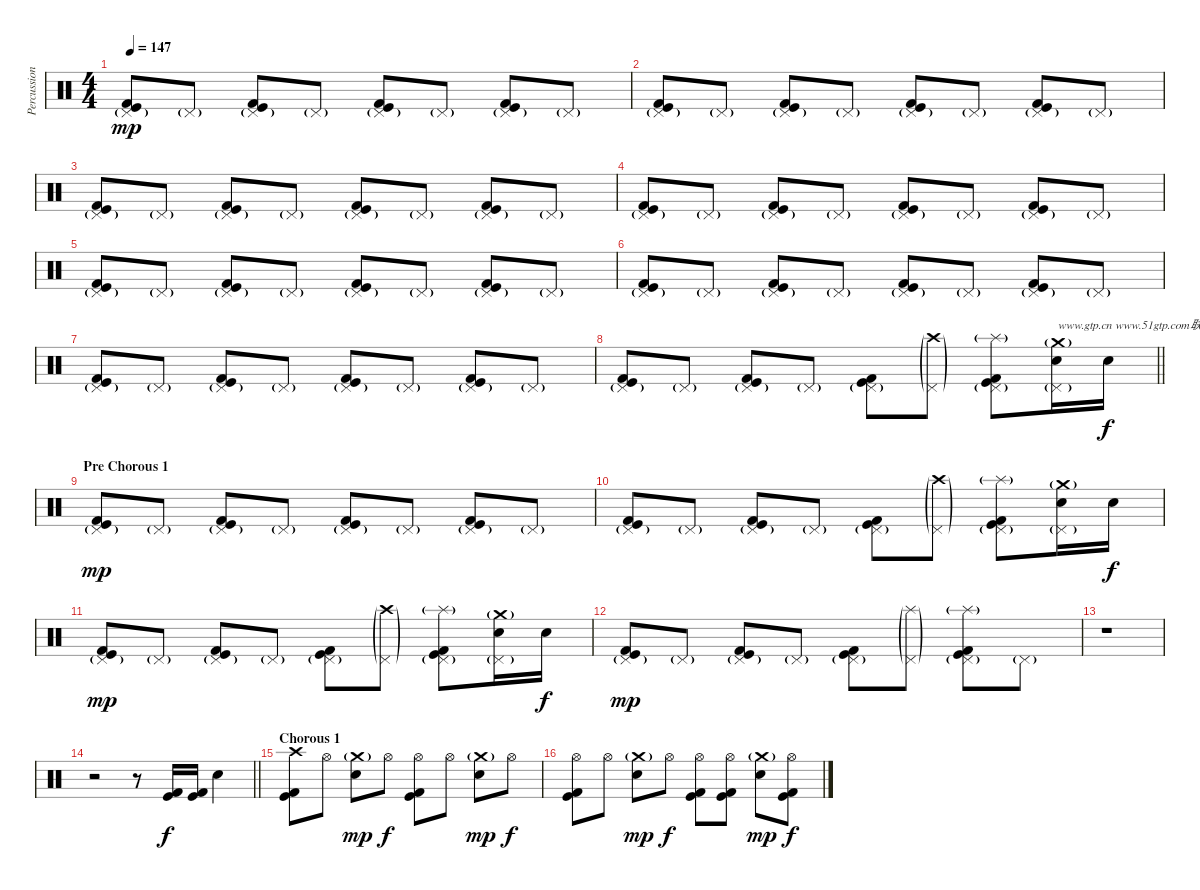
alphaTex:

\track ("Percussion" "Percussion") {instrument percussion}
\staff {score}
\articulation defaults
\ts (4 4)
\section ("" "")
\tempo 147
\clef neutral
\ks c
("Pedal Hi-Hat (hit)"{g} "Kick (hit)" "Kick (hit) 2").8{dy mp} "Pedal Hi-Hat (hit)"{g}.8 ("Pedal Hi-Hat (hit)"{g} "Kick (hit)" "Kick (hit) 2").8 "Pedal Hi-Hat (hit)"{g}.8 ("Pedal Hi-Hat (hit)"{g} "Kick (hit)" "Kick (hit) 2").8 "Pedal Hi-Hat (hit)"{g}.8 ("Pedal Hi-Hat (hit)"{g} "Kick (hit)" "Kick (hit) 2").8 "Pedal Hi-Hat (hit)"{g}.8 |
("Pedal Hi-Hat (hit)"{g} "Kick (hit)" "Kick (hit) 2").8 "Pedal Hi-Hat (hit)"{g}.8 ("Pedal Hi-Hat (hit)"{g} "Kick (hit)" "Kick (hit) 2").8 "Pedal Hi-Hat (hit)"{g}.8 ("Pedal Hi-Hat (hit)"{g} "Kick (hit)" "Kick (hit) 2").8 "Pedal Hi-Hat (hit)"{g}.8 ("Pedal Hi-Hat (hit)"{g} "Kick (hit)" "Kick (hit) 2").8 "Pedal Hi-Hat (hit)"{g}.8 |
("Pedal Hi-Hat (hit)"{g} "Kick (hit)" "Kick (hit) 2").8 "Pedal Hi-Hat (hit)"{g}.8 ("Pedal Hi-Hat (hit)"{g} "Kick (hit)" "Kick (hit) 2").8 "Pedal Hi-Hat (hit)"{g}.8 ("Pedal Hi-Hat (hit)"{g} "Kick (hit)" "Kick (hit) 2").8 "Pedal Hi-Hat (hit)"{g}.8 ("Pedal Hi-Hat (hit)"{g} "Kick (hit)" "Kick (hit) 2").8 "Pedal Hi-Hat (hit)"{g}.8 |
("Pedal Hi-Hat (hit)"{g} "Kick (hit)" "Kick (hit) 2").8 "Pedal Hi-Hat (hit)"{g}.8 ("Pedal Hi-Hat (hit)"{g} "Kick (hit)" "Kick (hit) 2").8 "Pedal Hi-Hat (hit)"{g}.8 ("Pedal Hi-Hat (hit)"{g} "Kick (hit)" "Kick (hit) 2").8 "Pedal Hi-Hat (hit)"{g}.8 ("Pedal Hi-Hat (hit)"{g} "Kick (hit)" "Kick (hit) 2").8 "Pedal Hi-Hat (hit)"{g}.8 |
("Pedal Hi-Hat (hit)"{g} "Kick (hit)" "Kick (hit) 2").8 "Pedal Hi-Hat (hit)"{g}.8 ("Pedal Hi-Hat (hit)"{g} "Kick (hit)" "Kick (hit) 2").8 "Pedal Hi-Hat (hit)"{g}.8 ("Pedal Hi-Hat (hit)"{g} "Kick (hit)" "Kick (hit) 2").8 "Pedal Hi-Hat (hit)"{g}.8 ("Pedal Hi-Hat (hit)"{g} "Kick (hit)" "Kick (hit) 2").8 "Pedal Hi-Hat (hit)"{g}.8 |
("Pedal Hi-Hat (hit)"{g} "Kick (hit)" "Kick (hit) 2").8 "Pedal Hi-Hat (hit)"{g}.8 ("Pedal Hi-Hat (hit)"{g} "Kick (hit)" "Kick (hit) 2").8 "Pedal Hi-Hat (hit)"{g}.8 ("Pedal Hi-Hat (hit)"{g} "Kick (hit)" "Kick (hit) 2").8 "Pedal Hi-Hat (hit)"{g}.8 ("Pedal Hi-Hat (hit)"{g} "Kick (hit)" "Kick (hit) 2").8 "Pedal Hi-Hat (hit)"{g}.8 |
("Pedal Hi-Hat (hit)"{g} "Kick (hit)" "Kick (hit) 2").8 "Pedal Hi-Hat (hit)"{g}.8 ("Pedal Hi-Hat (hit)"{g} "Kick (hit)" "Kick (hit) 2").8 "Pedal Hi-Hat (hit)"{g}.8 ("Pedal Hi-Hat (hit)"{g} "Kick (hit)" "Kick (hit) 2").8 "Pedal Hi-Hat (hit)"{g}.8 ("Pedal Hi-Hat (hit)"{g} "Kick (hit)" "Kick (hit) 2").8 "Pedal Hi-Hat (hit)"{g}.8 |
\barLineRight lightlight
("Pedal Hi-Hat (hit)"{g} "Kick (hit)" "Kick (hit) 2").8 "Pedal Hi-Hat (hit)"{g}.8 ("Pedal Hi-Hat (hit)"{g} "Kick (hit)" "Kick (hit) 2").8 "Pedal Hi-Hat (hit)"{g}.8 ("Pedal Hi-Hat (hit)"{g} "Kick (hit)" "Kick (hit) 2").8 ("Pedal Hi-Hat (hit)"{g} "Crash high (hit)"{g}).8 ("Pedal Hi-Hat (hit)"{g} "Splash (hit)"{g} "Kick (hit)" "Kick (hit) 2").8 ("Pedal Hi-Hat (hit)"{g} "Crash medium (hit)"{g} "Electric Snare (hit)").16{txt "www.gtp.cn www.51gtp.com联合为您提供优秀的GTP!"} "Electric Snare (hit)".16{dy f} |
\section ("" "Pre Chorous 1")
("Pedal Hi-Hat (hit)"{g} "Kick (hit)" "Kick (hit) 2").8{dy mp} "Pedal Hi-Hat (hit)"{g}.8 ("Pedal Hi-Hat (hit)"{g} "Kick (hit)" "Kick (hit) 2").8 "Pedal Hi-Hat (hit)"{g}.8 ("Pedal Hi-Hat (hit)"{g} "Kick (hit)" "Kick (hit) 2").8 "Pedal Hi-Hat (hit)"{g}.8 ("Pedal Hi-Hat (hit)"{g} "Kick (hit)" "Kick (hit) 2").8 "Pedal Hi-Hat (hit)"{g}.8 |
("Pedal Hi-Hat (hit)"{g} "Kick (hit)" "Kick (hit) 2").8 "Pedal Hi-Hat (hit)"{g}.8 ("Pedal Hi-Hat (hit)"{g} "Kick (hit)" "Kick (hit) 2").8 "Pedal Hi-Hat (hit)"{g}.8 ("Pedal Hi-Hat (hit)"{g} "Kick (hit)" "Kick (hit) 2").8 ("Pedal Hi-Hat (hit)"{g} "Crash high (hit)"{g}).8 ("Pedal Hi-Hat (hit)"{g} "Splash (hit)"{g} "Kick (hit)" "Kick (hit) 2").8 ("Pedal Hi-Hat (hit)"{g} "Crash medium (hit)"{g} "Electric Snare (hit)").16 "Electric Snare (hit)".16{dy f} |
("Pedal Hi-Hat (hit)"{g} "Kick (hit)" "Kick (hit) 2").8{dy mp} "Pedal Hi-Hat (hit)"{g}.8 ("Pedal Hi-Hat (hit)"{g} "Kick (hit)" "Kick (hit) 2").8 "Pedal Hi-Hat (hit)"{g}.8 ("Pedal Hi-Hat (hit)"{g} "Kick (hit)" "Kick (hit) 2").8 ("Pedal Hi-Hat (hit)"{g} "Crash high (hit)"{g}).8 ("Pedal Hi-Hat (hit)"{g} "Splash (hit)"{g} "Kick (hit)" "Kick (hit) 2").8 ("Pedal Hi-Hat (hit)"{g} "Crash medium (hit)"{g} "Electric Snare (hit)").16 "Electric Snare (hit)".16{dy f} |
("Pedal Hi-Hat (hit)"{g} "Kick (hit)" "Kick (hit) 2").8{dy mp} "Pedal Hi-Hat (hit)"{g}.8 ("Pedal Hi-Hat (hit)"{g} "Kick (hit)" "Kick (hit) 2").8 "Pedal Hi-Hat (hit)"{g}.8 ("Pedal Hi-Hat (hit)"{g} "Kick (hit)" "Kick (hit) 2").8 ("Pedal Hi-Hat (hit)"{g} "Splash (hit)"{g}).8 ("Pedal Hi-Hat (hit)"{g} "Splash (hit)"{g} "Kick (hit)" "Kick (hit) 2").8 "Pedal Hi-Hat (hit)"{g}.8 |
r.1 |
\barLineRight lightlight
r.2 r.8 ("Kick (hit)" "Kick (hit) 2").16{dy f} ("Kick (hit)" "Kick (hit) 2").16 "Electric Snare (hit)".4 |
\section ("" "Chorous 1")
("Crash high (hit)" "Kick (hit)" "Kick (hit) 2").8 "Hi-Hat (open)".8 ("Crash medium (hit)"{g} "Electric Snare (hit)").8{dy mp} "Hi-Hat (open)".8{dy f} ("Hi-Hat (open)" "Kick (hit)" "Kick (hit) 2").8 "Hi-Hat (open)".8 ("Crash medium (hit)"{g} "Electric Snare (hit)").8{dy mp} "Hi-Hat (open)".8{dy f} |
("Hi-Hat (open)" "Kick (hit)" "Kick (hit) 2").8 "Hi-Hat (open)".8 ("Crash medium (hit)"{g} "Electric Snare (hit)").8{dy mp} "Hi-Hat (open)".8{dy f} ("Hi-Hat (open)" "Kick (hit)" "Kick (hit) 2").8 ("Hi-Hat (open)" "Kick (hit)" "Kick (hit) 2").8 ("Crash medium (hit)"{g} "Electric Snare (hit)").8{dy mp} ("Hi-Hat (open)" "Kick (hit)" "Kick (hit) 2").8{dy f}
